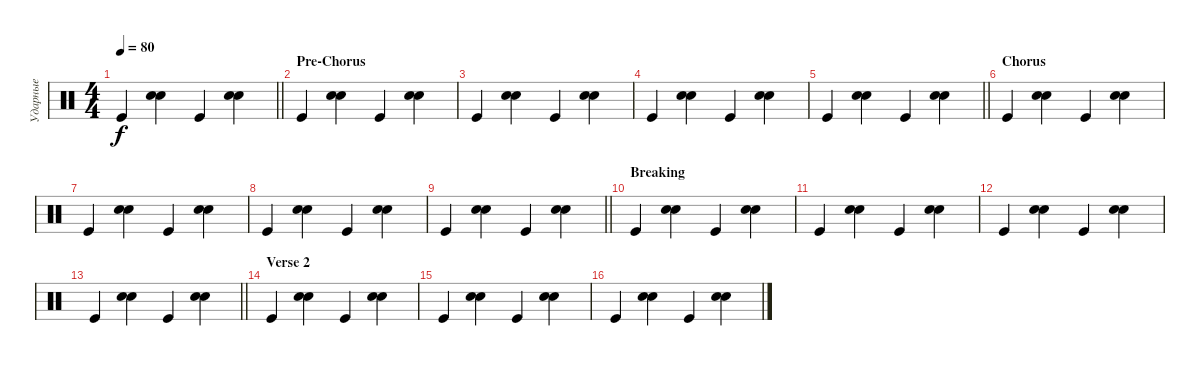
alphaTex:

\track ("Ударные" "Ударные") {instrument percussion}
\staff {score}
\articulation defaults
\ts (4 4)
\tempo 80
\clef neutral
\barLineRight lightlight
\ks aminor "Kick (hit)".4{dy f}
("Snare (hit) 2" "Snare (hit) 2").4{bd 120} "Kick (hit)".4 ("Snare (hit) 2" "Snare (hit) 2").4{bd 120} |
\section ("" "Pre-Chorus")
"Kick (hit)".4 ("Snare (hit) 2" "Snare (hit) 2").4{bd 120} "Kick (hit)".4 ("Snare (hit) 2" "Snare (hit) 2").4{bd 120} |
"Kick (hit)".4 ("Snare (hit) 2" "Snare (hit) 2").4{bd 120} "Kick (hit)".4 ("Snare (hit) 2" "Snare (hit) 2").4{bd 120} |
"Kick (hit)".4 ("Snare (hit) 2" "Snare (hit) 2").4{bd 120} "Kick (hit)".4 ("Snare (hit) 2" "Snare (hit) 2").4{bd 120} |
\barLineRight lightlight "Kick (hit)".4
("Snare (hit) 2" "Snare (hit) 2").4{bd 120} "Kick (hit)".4 ("Snare (hit) 2" "Snare (hit) 2").4{bd 120} |
\section ("" "Chorus")
"Kick (hit)".4 ("Snare (hit) 2" "Snare (hit) 2").4{bd 120} "Kick (hit)".4 ("Snare (hit) 2" "Snare (hit) 2").4{bd 120} |
"Kick (hit)".4 ("Snare (hit) 2" "Snare (hit) 2").4{bd 120} "Kick (hit)".4 ("Snare (hit) 2" "Snare (hit) 2").4{bd 120} |
"Kick (hit)".4 ("Snare (hit) 2" "Snare (hit) 2").4{bd 120} "Kick (hit)".4 ("Snare (hit) 2" "Snare (hit) 2").4{bd 120} |
\barLineRight lightlight "Kick (hit)".4
("Snare (hit) 2" "Snare (hit) 2").4{bd 120} "Kick (hit)".4 ("Snare (hit) 2" "Snare (hit) 2").4{bd 120} |
\section ("" "Breaking")
"Kick (hit)".4 ("Snare (hit) 2" "Snare (hit) 2").4{bd 120} "Kick (hit)".4 ("Snare (hit) 2" "Snare (hit) 2").4{bd 120} |
"Kick (hit)".4 ("Snare (hit) 2" "Snare (hit) 2").4{bd 120} "Kick (hit)".4 ("Snare (hit) 2" "Snare (hit) 2").4{bd 120} |
"Kick (hit)".4 ("Snare (hit) 2" "Snare (hit) 2").4{bd 120} "Kick (hit)".4 ("Snare (hit) 2" "Snare (hit) 2").4{bd 120} |
\barLineRight lightlight "Kick (hit)".4
("Snare (hit) 2" "Snare (hit) 2").4{bd 120} "Kick (hit)".4 ("Snare (hit) 2" "Snare (hit) 2").4{bd 120} |
\section ("" "Verse 2")
"Kick (hit)".4 ("Snare (hit) 2" "Snare (hit) 2").4{bd 120} "Kick (hit)".4 ("Snare (hit) 2" "Snare (hit) 2").4{bd 120} |
"Kick (hit)".4 ("Snare (hit) 2" "Snare (hit) 2").4{bd 120} "Kick (hit)".4 ("Snare (hit) 2" "Snare (hit) 2").4{bd 120} |
"Kick (hit)".4 ("Snare (hit) 2" "Snare (hit) 2").4{bd 120} "Kick (hit)".4 ("Snare (hit) 2" "Snare (hit) 2").4{bd 120}
